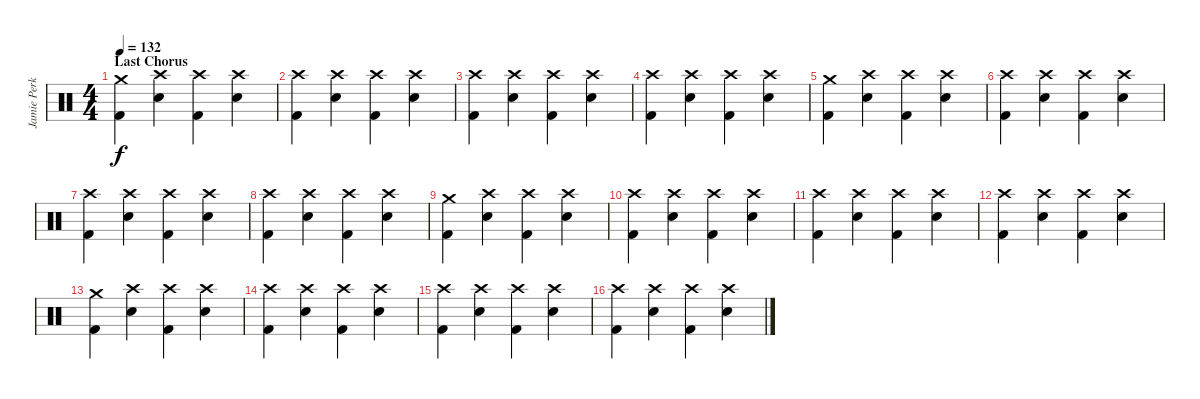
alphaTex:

\track ("Jamie Perkins" "Jamie Perk") {instrument percussion}
\staff {score}
\articulation defaults
\ts (4 4)
\section ("" "Last Chorus")
\tempo 132
\clef neutral
\ks c
("Crash medium (hit)" "Kick (hit) 2").4{dy f} ("Crash high (hit)" "Snare (hit) 2").4 ("Crash high (hit)" "Kick (hit) 2").4 ("Crash high (hit)" "Snare (hit) 2").4 |
("Crash high (hit)" "Kick (hit) 2").4 ("Crash high (hit)" "Snare (hit) 2").4 ("Crash high (hit)" "Kick (hit) 2").4 ("Crash high (hit)" "Snare (hit) 2").4 |
("Crash high (hit)" "Kick (hit) 2").4 ("Crash high (hit)" "Snare (hit) 2").4 ("Crash high (hit)" "Kick (hit) 2").4 ("Crash high (hit)" "Snare (hit) 2").4 |
("Crash high (hit)" "Kick (hit) 2").4 ("Crash high (hit)" "Snare (hit) 2").4 ("Crash high (hit)" "Kick (hit) 2").4 ("Crash high (hit)" "Snare (hit) 2").4 |
("Crash medium (hit)" "Kick (hit) 2").4 ("Crash high (hit)" "Snare (hit) 2").4 ("Crash high (hit)" "Kick (hit) 2").4 ("Crash high (hit)" "Snare (hit) 2").4 |
("Crash high (hit)" "Kick (hit) 2").4 ("Crash high (hit)" "Snare (hit) 2").4 ("Crash high (hit)" "Kick (hit) 2").4 ("Crash high (hit)" "Snare (hit) 2").4 |
("Crash high (hit)" "Kick (hit) 2").4 ("Crash high (hit)" "Snare (hit) 2").4 ("Crash high (hit)" "Kick (hit) 2").4 ("Crash high (hit)" "Snare (hit) 2").4 |
("Crash high (hit)" "Kick (hit) 2").4 ("Crash high (hit)" "Snare (hit) 2").4 ("Crash high (hit)" "Kick (hit) 2").4 ("Crash high (hit)" "Snare (hit) 2").4 |
("Crash medium (hit)" "Kick (hit) 2").4 ("Crash high (hit)" "Snare (hit) 2").4 ("Crash high (hit)" "Kick (hit) 2").4 ("Crash high (hit)" "Snare (hit) 2").4 |
("Crash high (hit)" "Kick (hit) 2").4 ("Crash high (hit)" "Snare (hit) 2").4 ("Crash high (hit)" "Kick (hit) 2").4 ("Crash high (hit)" "Snare (hit) 2").4 |
("Crash high (hit)" "Kick (hit) 2").4 ("Crash high (hit)" "Snare (hit) 2").4 ("Crash high (hit)" "Kick (hit) 2").4 ("Crash high (hit)" "Snare (hit) 2").4 |
("Crash high (hit)" "Kick (hit) 2").4 ("Crash high (hit)" "Snare (hit) 2").4 ("Crash high (hit)" "Kick (hit) 2").4 ("Crash high (hit)" "Snare (hit) 2").4 |
("Crash medium (hit)" "Kick (hit) 2").4 ("Crash high (hit)" "Snare (hit) 2").4 ("Crash high (hit)" "Kick (hit) 2").4 ("Crash high (hit)" "Snare (hit) 2").4 |
("Crash high (hit)" "Kick (hit) 2").4 ("Crash high (hit)" "Snare (hit) 2").4 ("Crash high (hit)" "Kick (hit) 2").4 ("Crash high (hit)" "Snare (hit) 2").4 |
("Crash high (hit)" "Kick (hit) 2").4 ("Crash high (hit)" "Snare (hit) 2").4 ("Crash high (hit)" "Kick (hit) 2").4 ("Crash high (hit)" "Snare (hit) 2").4 |
("Crash high (hit)" "Kick (hit) 2").4 ("Crash high (hit)" "Snare (hit) 2").4 ("Crash high (hit)" "Kick (hit) 2").4 ("Crash high (hit)" "Snare (hit) 2").4
